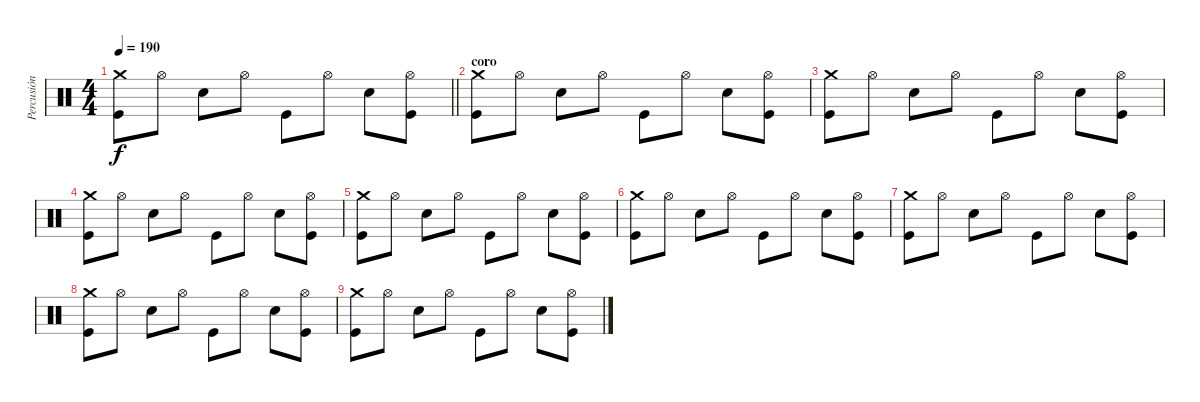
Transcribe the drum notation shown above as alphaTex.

\track ("Percusión" "Percusión") {instrument percussion}
\staff {score}
\articulation defaults
\ts (4 4)
\tempo 190
\clef neutral
\barLineRight lightlight
\ks c
("Crash medium (hit)" "Kick (hit)").8{dy f} "Hi-Hat (open)".8 "Electric Snare (hit)".8 "Hi-Hat (open)".8 "Kick (hit)".8 "Hi-Hat (open)".8 "Electric Snare (hit)".8 ("Hi-Hat (open)" "Kick (hit)").8 |
\section ("" "coro")
("Crash medium (hit)" "Kick (hit)").8 "Hi-Hat (open)".8 "Electric Snare (hit)".8 "Hi-Hat (open)".8 "Kick (hit)".8 "Hi-Hat (open)".8 "Electric Snare (hit)".8 ("Hi-Hat (open)" "Kick (hit)").8 |
("Crash medium (hit)" "Kick (hit)").8 "Hi-Hat (open)".8 "Electric Snare (hit)".8 "Hi-Hat (open)".8 "Kick (hit)".8 "Hi-Hat (open)".8 "Electric Snare (hit)".8 ("Hi-Hat (open)" "Kick (hit)").8 |
("Crash medium (hit)" "Kick (hit)").8 "Hi-Hat (open)".8 "Electric Snare (hit)".8 "Hi-Hat (open)".8 "Kick (hit)".8 "Hi-Hat (open)".8 "Electric Snare (hit)".8 ("Hi-Hat (open)" "Kick (hit)").8 |
("Crash medium (hit)" "Kick (hit)").8 "Hi-Hat (open)".8 "Electric Snare (hit)".8 "Hi-Hat (open)".8 "Kick (hit)".8 "Hi-Hat (open)".8 "Electric Snare (hit)".8 ("Hi-Hat (open)" "Kick (hit)").8 |
("Crash medium (hit)" "Kick (hit)").8 "Hi-Hat (open)".8 "Electric Snare (hit)".8 "Hi-Hat (open)".8 "Kick (hit)".8 "Hi-Hat (open)".8 "Electric Snare (hit)".8 ("Hi-Hat (open)" "Kick (hit)").8 |
("Crash medium (hit)" "Kick (hit)").8 "Hi-Hat (open)".8 "Electric Snare (hit)".8 "Hi-Hat (open)".8 "Kick (hit)".8 "Hi-Hat (open)".8 "Electric Snare (hit)".8 ("Hi-Hat (open)" "Kick (hit)").8 |
("Crash medium (hit)" "Kick (hit)").8 "Hi-Hat (open)".8 "Electric Snare (hit)".8 "Hi-Hat (open)".8 "Kick (hit)".8 "Hi-Hat (open)".8 "Electric Snare (hit)".8 ("Hi-Hat (open)" "Kick (hit)").8 |
("Crash medium (hit)" "Kick (hit)").8 "Hi-Hat (open)".8 "Electric Snare (hit)".8 "Hi-Hat (open)".8 "Kick (hit)".8 "Hi-Hat (open)".8 "Electric Snare (hit)".8 ("Hi-Hat (open)" "Kick (hit)").8
